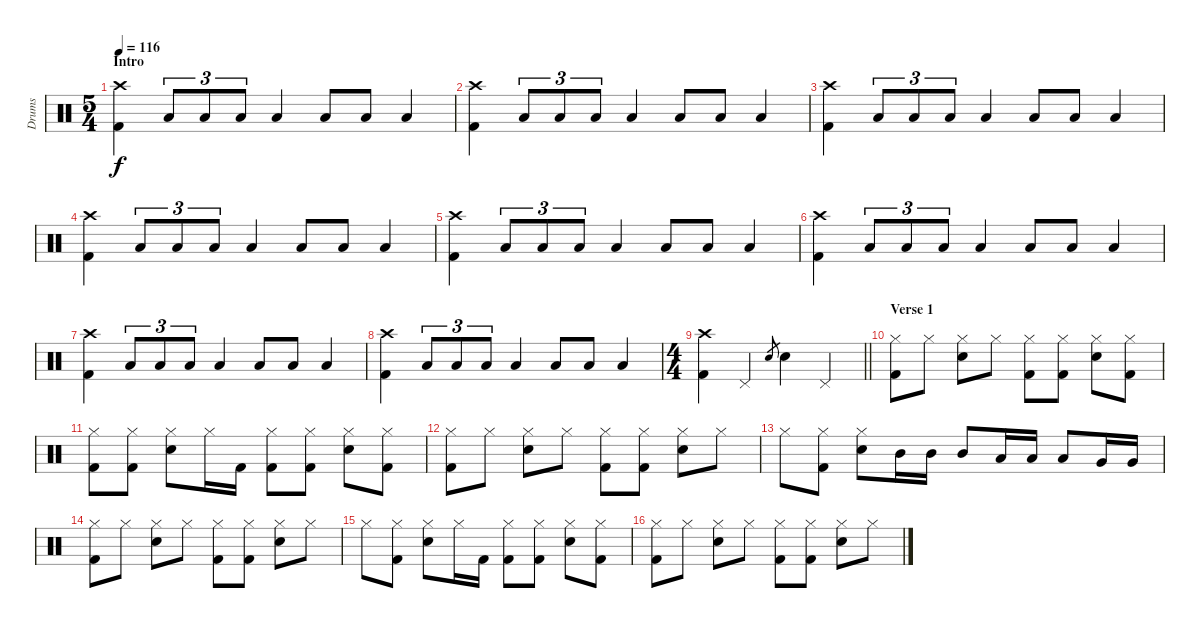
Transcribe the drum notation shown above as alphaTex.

\track ("Drums" "Drums") {instrument percussion}
\staff {score}
\articulation defaults
\ts (5 4)
\section ("" "Intro")
\tempo 116
\clef neutral
\ks c
("Crash high (hit)" "Kick (hit) 2").4{dy f} "Low Tom (hit)".8{tu (3 2)} "Low Tom (hit)".8{tu (3 2)} "Low Tom (hit)".8{tu (3 2)} "Low Tom (hit)".4 "Low Tom (hit)".8 "Low Tom (hit)".8 "Low Tom (hit)".4 |
("Crash high (hit)" "Kick (hit) 2").4 "Low Tom (hit)".8{tu (3 2)} "Low Tom (hit)".8{tu (3 2)} "Low Tom (hit)".8{tu (3 2)} "Low Tom (hit)".4 "Low Tom (hit)".8 "Low Tom (hit)".8 "Low Tom (hit)".4 |
("Crash high (hit)" "Kick (hit) 2").4 "Low Tom (hit)".8{tu (3 2)} "Low Tom (hit)".8{tu (3 2)} "Low Tom (hit)".8{tu (3 2)} "Low Tom (hit)".4 "Low Tom (hit)".8 "Low Tom (hit)".8 "Low Tom (hit)".4 |
("Crash high (hit)" "Kick (hit) 2").4 "Low Tom (hit)".8{tu (3 2)} "Low Tom (hit)".8{tu (3 2)} "Low Tom (hit)".8{tu (3 2)} "Low Tom (hit)".4 "Low Tom (hit)".8 "Low Tom (hit)".8 "Low Tom (hit)".4 |
("Crash high (hit)" "Kick (hit) 2").4 "Low Tom (hit)".8{tu (3 2)} "Low Tom (hit)".8{tu (3 2)} "Low Tom (hit)".8{tu (3 2)} "Low Tom (hit)".4 "Low Tom (hit)".8 "Low Tom (hit)".8 "Low Tom (hit)".4 |
("Crash high (hit)" "Kick (hit) 2").4 "Low Tom (hit)".8{tu (3 2)} "Low Tom (hit)".8{tu (3 2)} "Low Tom (hit)".8{tu (3 2)} "Low Tom (hit)".4 "Low Tom (hit)".8 "Low Tom (hit)".8 "Low Tom (hit)".4 |
("Crash high (hit)" "Kick (hit) 2").4 "Low Tom (hit)".8{tu (3 2)} "Low Tom (hit)".8{tu (3 2)} "Low Tom (hit)".8{tu (3 2)} "Low Tom (hit)".4 "Low Tom (hit)".8 "Low Tom (hit)".8 "Low Tom (hit)".4 |
("Crash high (hit)" "Kick (hit) 2").4 "Low Tom (hit)".8{tu (3 2)} "Low Tom (hit)".8{tu (3 2)} "Low Tom (hit)".8{tu (3 2)} "Low Tom (hit)".4 "Low Tom (hit)".8 "Low Tom (hit)".8 "Low Tom (hit)".4 |
\ts (4 4)
\barLineRight lightlight
("Crash high (hit)" "Kick (hit) 2").4 "Pedal Hi-Hat (hit)".4 "Snare (hit) 2".8{gr} "Snare (hit) 2".4 "Pedal Hi-Hat (hit)".4 |
\section ("" "Verse 1")
("Hi-Hat (closed)" "Kick (hit) 2").8 "Hi-Hat (closed)".8 ("Hi-Hat (closed)" "Snare (hit) 2").8 "Hi-Hat (closed)".8 ("Hi-Hat (closed)" "Kick (hit) 2").8 ("Hi-Hat (closed)" "Kick (hit) 2").8 ("Hi-Hat (closed)" "Snare (hit) 2").8 ("Hi-Hat (closed)" "Kick (hit) 2").8 |
("Hi-Hat (closed)" "Kick (hit) 2").8 ("Hi-Hat (closed)" "Kick (hit) 2").8 ("Hi-Hat (closed)" "Snare (hit) 2").8 "Hi-Hat (closed)".16 "Kick (hit) 2".16 ("Hi-Hat (closed)" "Kick (hit) 2").8 ("Hi-Hat (closed)" "Kick (hit) 2").8 ("Hi-Hat (closed)" "Snare (hit) 2").8 ("Hi-Hat (closed)" "Kick (hit) 2").8 |
("Hi-Hat (closed)" "Kick (hit) 2").8 "Hi-Hat (closed)".8 ("Hi-Hat (closed)" "Snare (hit) 2").8 "Hi-Hat (closed)".8 ("Hi-Hat (closed)" "Kick (hit) 2").8 ("Hi-Hat (closed)" "Kick (hit) 2").8 ("Hi-Hat (closed)" "Snare (hit) 2").8 "Hi-Hat (closed)".8 |
"Hi-Hat (closed)".8 ("Hi-Hat (closed)" "Kick (hit) 2").8 ("Hi-Hat (closed)" "Snare (hit) 2").8 "Mid Tom (hit)".16 "Mid Tom (hit)".16 "Mid Tom (hit)".8 "Low Tom (hit)".16 "Low Tom (hit)".16 "Low Tom (hit)".8 "Very Low Tom (hit)".16 "Very Low Tom (hit)".16 |
("Hi-Hat (closed)" "Kick (hit) 2").8 "Hi-Hat (closed)".8 ("Hi-Hat (closed)" "Snare (hit) 2").8 "Hi-Hat (closed)".8 ("Hi-Hat (closed)" "Kick (hit) 2").8 ("Hi-Hat (closed)" "Kick (hit) 2").8 ("Hi-Hat (closed)" "Snare (hit) 2").8 "Hi-Hat (closed)".8 |
"Hi-Hat (closed)".8 ("Hi-Hat (closed)" "Kick (hit) 2").8 ("Hi-Hat (closed)" "Snare (hit) 2").8 "Hi-Hat (closed)".16 "Kick (hit) 2".16 ("Hi-Hat (closed)" "Kick (hit) 2").8 ("Hi-Hat (closed)" "Kick (hit) 2").8 ("Hi-Hat (closed)" "Snare (hit) 2").8 ("Hi-Hat (closed)" "Kick (hit) 2").8 |
("Hi-Hat (closed)" "Kick (hit) 2").8 "Hi-Hat (closed)".8 ("Hi-Hat (closed)" "Snare (hit) 2").8 "Hi-Hat (closed)".8 ("Hi-Hat (closed)" "Kick (hit) 2").8 ("Hi-Hat (closed)" "Kick (hit) 2").8 ("Hi-Hat (closed)" "Snare (hit) 2").8 "Hi-Hat (closed)".8
